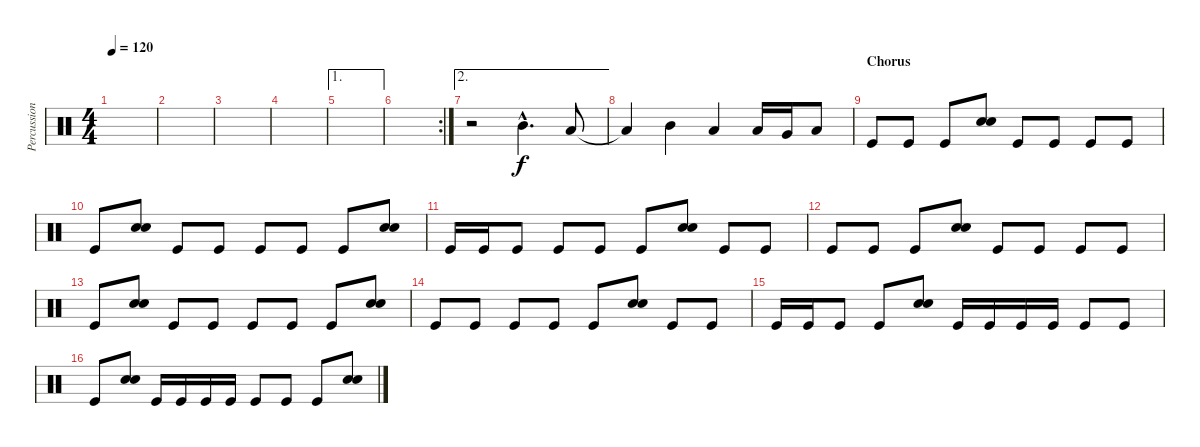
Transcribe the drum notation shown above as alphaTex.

\track ("Percussion" "Percussion") {instrument percussion}
\staff {score}
\articulation defaults
\ts (4 4)
\tempo 120
\clef neutral
\ks c
|
|
|
|
\ae 1
|
\rc 2
|
\ae 2
r.2 "Mid Tom (hit)"{hac}.4{d} "Low Tom (hit)".8 |
"Low Tom (hit)"{t}.4 "Mid Tom (hit)".4 "Low Tom (hit)".4 "Low Tom (hit)".16 "Very Low Tom (hit)".16 "Low Floor Tom (hit)".8 |
\section ("" "Chorus")
"Kick (hit)".8 "Kick (hit)".8 "Kick (hit)".8 ("Snare (hit) 2" "Electric Snare (hit)").8 "Kick (hit)".8 "Kick (hit)".8 "Kick (hit)".8 "Kick (hit)".8 |
"Kick (hit)".8 ("Snare (hit) 2" "Electric Snare (hit)").8 "Kick (hit)".8 "Kick (hit)".8 "Kick (hit)".8 "Kick (hit)".8 "Kick (hit)".8 ("Snare (hit) 2" "Electric Snare (hit)").8 |
"Kick (hit)".16 "Kick (hit)".16 "Kick (hit)".8 "Kick (hit)".8 "Kick (hit)".8 "Kick (hit)".8 ("Snare (hit) 2" "Electric Snare (hit)").8 "Kick (hit)".8 "Kick (hit)".8 |
"Kick (hit)".8 "Kick (hit)".8 "Kick (hit)".8 ("Snare (hit) 2" "Electric Snare (hit)").8 "Kick (hit)".8 "Kick (hit)".8 "Kick (hit)".8 "Kick (hit)".8 |
"Kick (hit)".8 ("Snare (hit) 2" "Electric Snare (hit)").8 "Kick (hit)".8 "Kick (hit)".8 "Kick (hit)".8 "Kick (hit)".8 "Kick (hit)".8 ("Snare (hit) 2" "Electric Snare (hit)").8 |
"Kick (hit)".8 "Kick (hit)".8 "Kick (hit)".8 "Kick (hit)".8 "Kick (hit)".8 ("Snare (hit) 2" "Electric Snare (hit)").8 "Kick (hit)".8 "Kick (hit)".8 |
"Kick (hit)".16 "Kick (hit)".16 "Kick (hit)".8 "Kick (hit)".8 ("Snare (hit) 2" "Electric Snare (hit)").8 "Kick (hit)".16 "Kick (hit)".16 "Kick (hit)".16 "Kick (hit)".16 "Kick (hit)".8 "Kick (hit)".8 |
"Kick (hit)".8 ("Snare (hit) 2" "Electric Snare (hit)").8 "Kick (hit)".16 "Kick (hit)".16 "Kick (hit)".16 "Kick (hit)".16 "Kick (hit)".8 "Kick (hit)".8 "Kick (hit)".8 ("Snare (hit) 2" "Electric Snare (hit)").8
